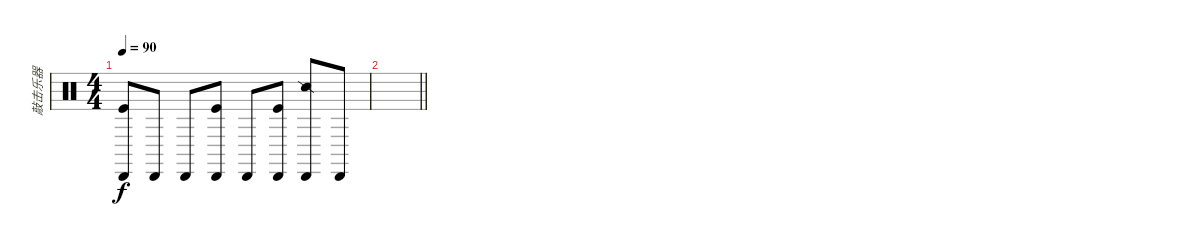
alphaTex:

\track ("敲击乐器" "敲击乐器") {instrument percussion}
\staff {score}
\articulation defaults
\ts (4 4)
\tempo 90
\clef neutral
\ks c
("Cabasa (hit)" "Kick (hit)").8{dy f} "Cabasa (hit)".8 "Cabasa (hit)".8 ("Cabasa (hit)" "Kick (hit)").8 "Cabasa (hit)".8 ("Cabasa (hit)" "Kick (hit)").8 ("Cabasa (hit)" "Snare (side stick) 2").8 "Cabasa (hit)".8 |
\barLineRight lightlight
